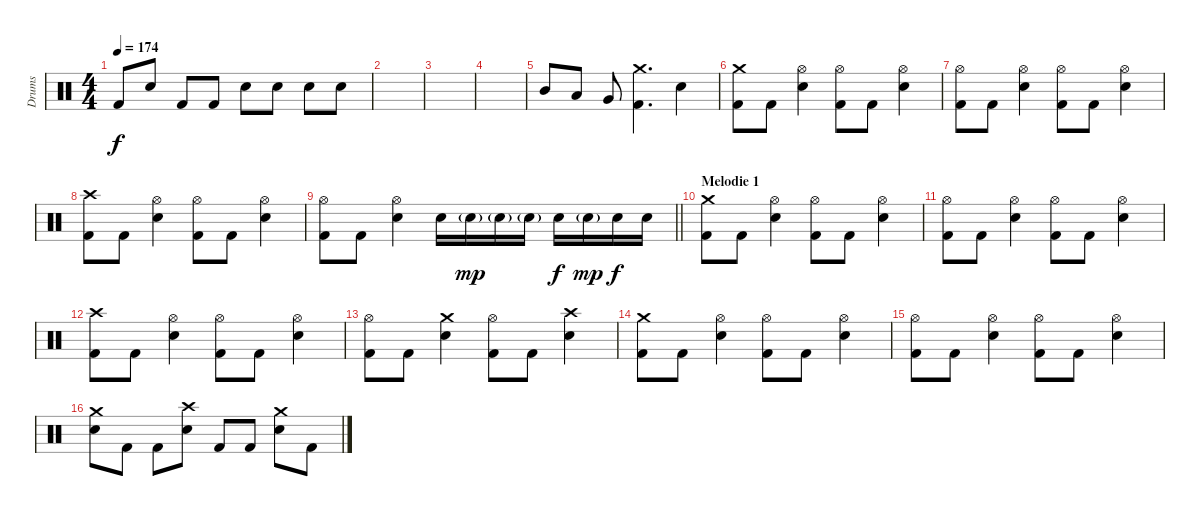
\track ("Drums" "Drums") {instrument percussion}
\staff {score}
\articulation defaults
\ts (4 4)
\tempo 174
\clef neutral
\ks c "Kick (hit) 2".8{dy f} "Snare (hit) 2".8 "Kick (hit) 2".8 "Kick (hit) 2".8 "Snare (hit) 2".8 "Snare (hit) 2".8 "Snare (hit) 2".8 "Snare (hit) 2".8
|
|
|
|
"Mid Tom (hit)".8 "Low Tom (hit)".8 "Very Low Tom (hit)".8 ("Crash medium (hit)" "Kick (hit) 2").4{d} "Snare (hit) 2".4 |
("Crash medium (hit)" "Kick (hit) 2").8 "Kick (hit) 2".8 ("Hi-Hat (open)" "Snare (hit) 2").4 ("Hi-Hat (open)" "Kick (hit) 2").8 "Kick (hit) 2".8 ("Hi-Hat (open)" "Snare (hit) 2").4 |
("Hi-Hat (open)" "Kick (hit) 2").8 "Kick (hit) 2".8 ("Hi-Hat (open)" "Snare (hit) 2").4 ("Hi-Hat (open)" "Kick (hit) 2").8 "Kick (hit) 2".8 ("Hi-Hat (open)" "Snare (hit) 2").4 |
("Crash high (hit)" "Kick (hit) 2").8 "Kick (hit) 2".8 ("Hi-Hat (open)" "Snare (hit) 2").4 ("Hi-Hat (open)" "Kick (hit) 2").8 "Kick (hit) 2".8 ("Hi-Hat (open)" "Snare (hit) 2").4 |
\barLineRight lightlight
("Hi-Hat (open)" "Kick (hit) 2").8 "Kick (hit) 2".8 ("Hi-Hat (open)" "Snare (hit) 2").4 "Snare (hit) 2".16 "Snare (hit) 2"{g}.16{dy mp} "Snare (hit) 2"{g}.16 "Snare (hit) 2"{g}.16 "Snare (hit) 2".16{dy f} "Snare (hit) 2"{g}.16{dy mp} "Snare (hit) 2".16{dy f} "Snare (hit) 2".16 |
\section ("" "Melodie 1")
("Crash medium (hit)" "Kick (hit) 2").8 "Kick (hit) 2".8 ("Hi-Hat (open)" "Snare (hit) 2").4 ("Hi-Hat (open)" "Kick (hit) 2").8 "Kick (hit) 2".8 ("Hi-Hat (open)" "Snare (hit) 2").4 |
("Hi-Hat (open)" "Kick (hit) 2").8 "Kick (hit) 2".8 ("Hi-Hat (open)" "Snare (hit) 2").4 ("Hi-Hat (open)" "Kick (hit) 2").8 "Kick (hit) 2".8 ("Hi-Hat (open)" "Snare (hit) 2").4 |
("Crash high (hit)" "Kick (hit) 2").8 "Kick (hit) 2".8 ("Hi-Hat (open)" "Snare (hit) 2").4 ("Hi-Hat (open)" "Kick (hit) 2").8 "Kick (hit) 2".8 ("Hi-Hat (open)" "Snare (hit) 2").4 |
("Hi-Hat (open)" "Kick (hit) 2").8 "Kick (hit) 2".8 ("Crash medium (hit)" "Snare (hit) 2").4 ("Hi-Hat (open)" "Kick (hit) 2").8 "Kick (hit) 2".8 ("Crash high (hit)" "Snare (hit) 2").4 |
("Crash medium (hit)" "Kick (hit) 2").8 "Kick (hit) 2".8 ("Hi-Hat (open)" "Snare (hit) 2").4 ("Hi-Hat (open)" "Kick (hit) 2").8 "Kick (hit) 2".8 ("Hi-Hat (open)" "Snare (hit) 2").4 |
("Hi-Hat (open)" "Kick (hit) 2").8 "Kick (hit) 2".8 ("Hi-Hat (open)" "Snare (hit) 2").4 ("Hi-Hat (open)" "Kick (hit) 2").8 "Kick (hit) 2".8 ("Hi-Hat (open)" "Snare (hit) 2").4 |
("Crash medium (hit)" "Snare (hit) 2").8 "Kick (hit) 2".8 "Kick (hit) 2".8 ("Crash high (hit)" "Snare (hit) 2").8 "Kick (hit) 2".8 "Kick (hit) 2".8 ("Crash medium (hit)" "Snare (hit) 2").8 "Kick (hit) 2".8
